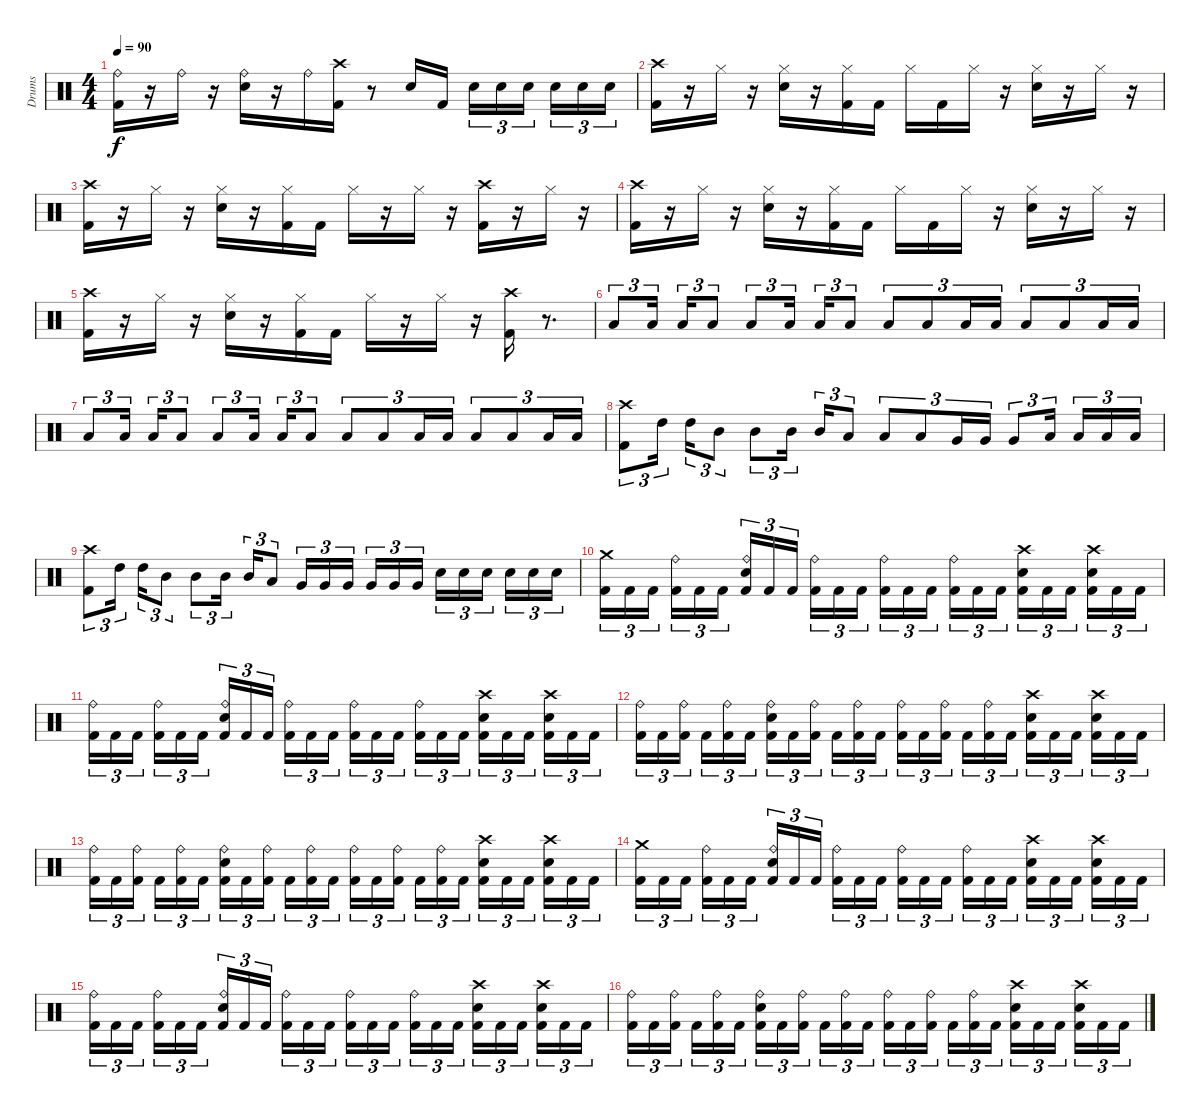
\track ("Drums" "Drums") {instrument percussion}
\staff {score}
\articulation defaults
\ts (4 4)
\tempo 90
\clef neutral
\ks c
("Kick (hit) 2" "Ride (bell)").16{dy f} r.16 "Ride (bell)".16 r.16 ("Electric Snare (hit)" "Ride (bell)").16 r.16 "Ride (bell)".16 ("Kick (hit) 2" "Crash high (hit)").16 r.8 "Electric Snare (hit)".16 "Kick (hit) 2".16 "Electric Snare (hit)".16{tu (3 2)} "Electric Snare (hit)".16{tu (3 2)} "Electric Snare (hit)".16{tu (3 2) beam splitsecondary} "Electric Snare (hit)".16{tu (3 2)} "Electric Snare (hit)".16{tu (3 2)} "Electric Snare (hit)".16{tu (3 2)} |
("Crash high (hit)" "Kick (hit) 2").16 r.16 "Hi-Hat (closed)".16 r.16 ("Hi-Hat (closed)" "Electric Snare (hit)").16 r.16 ("Hi-Hat (closed)" "Kick (hit) 2").16 "Kick (hit) 2".16 "Hi-Hat (closed)".16 "Kick (hit) 2".16 "Hi-Hat (closed)".16 r.16 ("Hi-Hat (closed)" "Electric Snare (hit)").16 r.16 "Hi-Hat (closed)".16 r.16 |
("Kick (hit) 2" "Crash high (hit)").16 r.16 "Hi-Hat (closed)".16 r.16 ("Hi-Hat (closed)" "Electric Snare (hit)").16 r.16 ("Hi-Hat (closed)" "Kick (hit) 2").16 "Kick (hit) 2".16 "Hi-Hat (closed)".16 r.16 "Hi-Hat (closed)".16 r.16 ("Crash high (hit)" "Kick (hit) 2").16 r.16 "Hi-Hat (closed)".16 r.16 |
("Kick (hit) 2" "Crash high (hit)").16 r.16 "Hi-Hat (closed)".16 r.16 ("Electric Snare (hit)" "Hi-Hat (closed)").16 r.16 ("Kick (hit) 2" "Hi-Hat (closed)").16 "Kick (hit) 2".16 "Hi-Hat (closed)".16 "Kick (hit) 2".16 "Hi-Hat (closed)".16 r.16 ("Electric Snare (hit)" "Hi-Hat (closed)").16 r.16 "Hi-Hat (closed)".16 r.16 |
("Crash high (hit)" "Kick (hit) 2").16 r.16 "Hi-Hat (closed)".16 r.16 ("Electric Snare (hit)" "Hi-Hat (closed)").16 r.16 ("Kick (hit) 2" "Hi-Hat (closed)").16 "Kick (hit) 2".16 "Hi-Hat (closed)".16 r.16 "Hi-Hat (closed)".16 r.16 ("Kick (hit) 2" "Crash high (hit)").16 r.8{d} |
"Low Floor Tom (hit)".8{tu (3 2)} "Low Floor Tom (hit)".16{tu (3 2) beam splitsecondary} "Low Floor Tom (hit)".16{tu (3 2)} "Low Floor Tom (hit)".8{tu (3 2)} "Low Floor Tom (hit)".8{tu (3 2)} "Low Floor Tom (hit)".16{tu (3 2) beam splitsecondary} "Low Floor Tom (hit)".16{tu (3 2)} "Low Floor Tom (hit)".8{tu (3 2)} "Low Floor Tom (hit)".8{tu (3 2)} "Low Floor Tom (hit)".8{tu (3 2)} "Low Floor Tom (hit)".16{tu (3 2)} "Low Floor Tom (hit)".16{tu (3 2)} "Low Floor Tom (hit)".8{tu (3 2)} "Low Floor Tom (hit)".8{tu (3 2)} "Low Floor Tom (hit)".16{tu (3 2)} "Low Floor Tom (hit)".16{tu (3 2)} |
"Low Floor Tom (hit)".8{tu (3 2)} "Low Floor Tom (hit)".16{tu (3 2) beam splitsecondary} "Low Floor Tom (hit)".16{tu (3 2)} "Low Floor Tom (hit)".8{tu (3 2)} "Low Floor Tom (hit)".8{tu (3 2)} "Low Floor Tom (hit)".16{tu (3 2) beam splitsecondary} "Low Floor Tom (hit)".16{tu (3 2)} "Low Floor Tom (hit)".8{tu (3 2)} "Low Floor Tom (hit)".8{tu (3 2)} "Low Floor Tom (hit)".8{tu (3 2)} "Low Floor Tom (hit)".16{tu (3 2)} "Low Floor Tom (hit)".16{tu (3 2)} "Low Floor Tom (hit)".8{tu (3 2)} "Low Floor Tom (hit)".8{tu (3 2)} "Low Floor Tom (hit)".16{tu (3 2)} "Low Floor Tom (hit)".16{tu (3 2)} |
("Crash high (hit)" "Kick (hit) 2").8{tu (3 2)} "High Tom (hit)".16{tu (3 2) beam splitsecondary} "High Tom (hit)".16{tu (3 2)} "Mid Tom (hit)".8{tu (3 2)} "Mid Tom (hit)".8{tu (3 2)} "Mid Tom (hit)".16{tu (3 2) beam splitsecondary} "Mid Tom (hit)".16{tu (3 2)} "Low Tom (hit)".8{tu (3 2)} "Low Tom (hit)".8{tu (3 2)} "Low Tom (hit)".8{tu (3 2)} "Very Low Tom (hit)".16{tu (3 2)} "Very Low Tom (hit)".16{tu (3 2)} "Very Low Tom (hit)".8{tu (3 2)} "Low Floor Tom (hit)".16{tu (3 2) beam splitsecondary} "Low Floor Tom (hit)".16{tu (3 2)} "Low Floor Tom (hit)".16{tu (3 2)} "Low Floor Tom (hit)".16{tu (3 2)} |
("Crash high (hit)" "Kick (hit) 2").8{tu (3 2)} "High Tom (hit)".16{tu (3 2) beam splitsecondary} "High Tom (hit)".16{tu (3 2)} "Mid Tom (hit)".8{tu (3 2)} "Mid Tom (hit)".8{tu (3 2)} "Mid Tom (hit)".16{tu (3 2) beam splitsecondary} "Mid Tom (hit)".16{tu (3 2)} "Low Tom (hit)".8{tu (3 2)} "Very Low Tom (hit)".16{tu (3 2)} "Very Low Tom (hit)".16{tu (3 2)} "Very Low Tom (hit)".16{tu (3 2) beam splitsecondary} "Very Low Tom (hit)".16{tu (3 2)} "Very Low Tom (hit)".16{tu (3 2)} "Very Low Tom (hit)".16{tu (3 2)} "Electric Snare (hit)".16{tu (3 2)} "Electric Snare (hit)".16{tu (3 2)} "Electric Snare (hit)".16{tu (3 2) beam splitsecondary} "Electric Snare (hit)".16{tu (3 2)} "Electric Snare (hit)".16{tu (3 2)} "Electric Snare (hit)".16{tu (3 2)} |
("Kick (hit) 2" "Crash medium (hit)").16{tu (3 2)} "Kick (hit) 2".16{tu (3 2)} "Kick (hit) 2".16{tu (3 2) beam splitsecondary} ("Kick (hit) 2" "Ride (bell)").16{tu (3 2)} "Kick (hit) 2".16{tu (3 2)} "Kick (hit) 2".16{tu (3 2)} ("Kick (hit) 2" "Electric Snare (hit)" "Ride (bell)").16{tu (3 2)} "Kick (hit) 2".16{tu (3 2)} "Kick (hit) 2".16{tu (3 2) beam splitsecondary} ("Kick (hit) 2" "Ride (bell)").16{tu (3 2)} "Kick (hit) 2".16{tu (3 2)} "Kick (hit) 2".16{tu (3 2)} ("Kick (hit) 2" "Ride (bell)").16{tu (3 2)} "Kick (hit) 2".16{tu (3 2)} "Kick (hit) 2".16{tu (3 2) beam splitsecondary} ("Kick (hit) 2" "Ride (bell)").16{tu (3 2)} "Kick (hit) 2".16{tu (3 2)} "Kick (hit) 2".16{tu (3 2)} ("Crash high (hit)" "Kick (hit) 2" "Electric Snare (hit)").16{tu (3 2)} "Kick (hit) 2".16{tu (3 2)} "Kick (hit) 2".16{tu (3 2) beam splitsecondary} ("Electric Snare (hit)" "Crash high (hit)" "Kick (hit) 2").16{tu (3 2)} "Kick (hit) 2".16{tu (3 2)} "Kick (hit) 2".16{tu (3 2)} |
("Kick (hit) 2" "Ride (bell)").16{tu (3 2)} "Kick (hit) 2".16{tu (3 2)} "Kick (hit) 2".16{tu (3 2) beam splitsecondary} ("Ride (bell)" "Kick (hit) 2").16{tu (3 2)} "Kick (hit) 2".16{tu (3 2)} "Kick (hit) 2".16{tu (3 2)} ("Ride (bell)" "Electric Snare (hit)" "Kick (hit) 2").16{tu (3 2)} "Kick (hit) 2".16{tu (3 2)} "Kick (hit) 2".16{tu (3 2) beam splitsecondary} ("Ride (bell)" "Kick (hit) 2").16{tu (3 2)} "Kick (hit) 2".16{tu (3 2)} "Kick (hit) 2".16{tu (3 2)} ("Ride (bell)" "Kick (hit) 2").16{tu (3 2)} "Kick (hit) 2".16{tu (3 2)} "Kick (hit) 2".16{tu (3 2) beam splitsecondary} ("Ride (bell)" "Kick (hit) 2").16{tu (3 2)} "Kick (hit) 2".16{tu (3 2)} "Kick (hit) 2".16{tu (3 2)} ("Electric Snare (hit)" "Kick (hit) 2" "Crash high (hit)").16{tu (3 2)} "Kick (hit) 2".16{tu (3 2)} "Kick (hit) 2".16{tu (3 2) beam splitsecondary} ("Kick (hit) 2" "Crash high (hit)" "Electric Snare (hit)").16{tu (3 2)} "Kick (hit) 2".16{tu (3 2)} "Kick (hit) 2".16{tu (3 2)} |
("Ride (bell)" "Kick (hit) 2").16{tu (3 2)} "Kick (hit) 2".16{tu (3 2)} ("Ride (bell)" "Kick (hit) 2").16{tu (3 2) beam splitsecondary} "Kick (hit) 2".16{tu (3 2)} ("Ride (bell)" "Kick (hit) 2").16{tu (3 2)} "Kick (hit) 2".16{tu (3 2)} ("Electric Snare (hit)" "Ride (bell)" "Kick (hit) 2").16{tu (3 2)} "Kick (hit) 2".16{tu (3 2)} ("Ride (bell)" "Kick (hit) 2").16{tu (3 2) beam splitsecondary} "Kick (hit) 2".16{tu (3 2)} ("Ride (bell)" "Kick (hit) 2").16{tu (3 2)} "Kick (hit) 2".16{tu (3 2)} ("Ride (bell)" "Kick (hit) 2").16{tu (3 2)} "Kick (hit) 2".16{tu (3 2)} ("Ride (bell)" "Kick (hit) 2").16{tu (3 2) beam splitsecondary} "Kick (hit) 2".16{tu (3 2)} ("Ride (bell)" "Kick (hit) 2").16{tu (3 2)} "Kick (hit) 2".16{tu (3 2)} ("Crash high (hit)" "Electric Snare (hit)" "Kick (hit) 2").16{tu (3 2)} "Kick (hit) 2".16{tu (3 2)} "Kick (hit) 2".16{tu (3 2) beam splitsecondary} ("Electric Snare (hit)" "Crash high (hit)" "Kick (hit) 2").16{tu (3 2)} "Kick (hit) 2".16{tu (3 2)} "Kick (hit) 2".16{tu (3 2)} |
("Kick (hit) 2" "Ride (bell)").16{tu (3 2)} "Kick (hit) 2".16{tu (3 2)} ("Kick (hit) 2" "Ride (bell)").16{tu (3 2) beam splitsecondary} "Kick (hit) 2".16{tu (3 2)} ("Kick (hit) 2" "Ride (bell)").16{tu (3 2)} "Kick (hit) 2".16{tu (3 2)} ("Kick (hit) 2" "Ride (bell)" "Electric Snare (hit)").16{tu (3 2)} "Kick (hit) 2".16{tu (3 2)} ("Kick (hit) 2" "Ride (bell)").16{tu (3 2) beam splitsecondary} "Kick (hit) 2".16{tu (3 2)} ("Kick (hit) 2" "Ride (bell)").16{tu (3 2)} "Kick (hit) 2".16{tu (3 2)} ("Kick (hit) 2" "Ride (bell)").16{tu (3 2)} "Kick (hit) 2".16{tu (3 2)} ("Kick (hit) 2" "Ride (bell)").16{tu (3 2) beam splitsecondary} "Kick (hit) 2".16{tu (3 2)} ("Kick (hit) 2" "Ride (bell)").16{tu (3 2)} "Kick (hit) 2".16{tu (3 2)} ("Kick (hit) 2" "Electric Snare (hit)" "Crash high (hit)").16{tu (3 2)} "Kick (hit) 2".16{tu (3 2)} "Kick (hit) 2".16{tu (3 2) beam splitsecondary} ("Kick (hit) 2" "Crash high (hit)" "Electric Snare (hit)").16{tu (3 2)} "Kick (hit) 2".16{tu (3 2)} "Kick (hit) 2".16{tu (3 2)} |
("Crash medium (hit)" "Kick (hit) 2").16{tu (3 2)} "Kick (hit) 2".16{tu (3 2)} "Kick (hit) 2".16{tu (3 2) beam splitsecondary} ("Ride (bell)" "Kick (hit) 2").16{tu (3 2)} "Kick (hit) 2".16{tu (3 2)} "Kick (hit) 2".16{tu (3 2)} ("Ride (bell)" "Electric Snare (hit)" "Kick (hit) 2").16{tu (3 2)} "Kick (hit) 2".16{tu (3 2)} "Kick (hit) 2".16{tu (3 2) beam splitsecondary} ("Ride (bell)" "Kick (hit) 2").16{tu (3 2)} "Kick (hit) 2".16{tu (3 2)} "Kick (hit) 2".16{tu (3 2)} ("Ride (bell)" "Kick (hit) 2").16{tu (3 2)} "Kick (hit) 2".16{tu (3 2)} "Kick (hit) 2".16{tu (3 2) beam splitsecondary} ("Ride (bell)" "Kick (hit) 2").16{tu (3 2)} "Kick (hit) 2".16{tu (3 2)} "Kick (hit) 2".16{tu (3 2)} ("Electric Snare (hit)" "Kick (hit) 2" "Crash high (hit)").16{tu (3 2)} "Kick (hit) 2".16{tu (3 2)} "Kick (hit) 2".16{tu (3 2) beam splitsecondary} ("Kick (hit) 2" "Crash high (hit)" "Electric Snare (hit)").16{tu (3 2)} "Kick (hit) 2".16{tu (3 2)} "Kick (hit) 2".16{tu (3 2)} |
("Ride (bell)" "Kick (hit) 2").16{tu (3 2)} "Kick (hit) 2".16{tu (3 2)} "Kick (hit) 2".16{tu (3 2) beam splitsecondary} ("Kick (hit) 2" "Ride (bell)").16{tu (3 2)} "Kick (hit) 2".16{tu (3 2)} "Kick (hit) 2".16{tu (3 2)} ("Kick (hit) 2" "Electric Snare (hit)" "Ride (bell)").16{tu (3 2)} "Kick (hit) 2".16{tu (3 2)} "Kick (hit) 2".16{tu (3 2) beam splitsecondary} ("Kick (hit) 2" "Ride (bell)").16{tu (3 2)} "Kick (hit) 2".16{tu (3 2)} "Kick (hit) 2".16{tu (3 2)} ("Kick (hit) 2" "Ride (bell)").16{tu (3 2)} "Kick (hit) 2".16{tu (3 2)} "Kick (hit) 2".16{tu (3 2) beam splitsecondary} ("Kick (hit) 2" "Ride (bell)").16{tu (3 2)} "Kick (hit) 2".16{tu (3 2)} "Kick (hit) 2".16{tu (3 2)} ("Crash high (hit)" "Kick (hit) 2" "Electric Snare (hit)").16{tu (3 2)} "Kick (hit) 2".16{tu (3 2)} "Kick (hit) 2".16{tu (3 2) beam splitsecondary} ("Electric Snare (hit)" "Crash high (hit)" "Kick (hit) 2").16{tu (3 2)} "Kick (hit) 2".16{tu (3 2)} "Kick (hit) 2".16{tu (3 2)} |
("Kick (hit) 2" "Ride (bell)").16{tu (3 2)} "Kick (hit) 2".16{tu (3 2)} ("Kick (hit) 2" "Ride (bell)").16{tu (3 2) beam splitsecondary} "Kick (hit) 2".16{tu (3 2)} ("Kick (hit) 2" "Ride (bell)").16{tu (3 2)} "Kick (hit) 2".16{tu (3 2)} ("Kick (hit) 2" "Ride (bell)" "Electric Snare (hit)").16{tu (3 2)} "Kick (hit) 2".16{tu (3 2)} ("Kick (hit) 2" "Ride (bell)").16{tu (3 2) beam splitsecondary} "Kick (hit) 2".16{tu (3 2)} ("Kick (hit) 2" "Ride (bell)").16{tu (3 2)} "Kick (hit) 2".16{tu (3 2)} ("Kick (hit) 2" "Ride (bell)").16{tu (3 2)} "Kick (hit) 2".16{tu (3 2)} ("Kick (hit) 2" "Ride (bell)").16{tu (3 2) beam splitsecondary} "Kick (hit) 2".16{tu (3 2)} ("Kick (hit) 2" "Ride (bell)").16{tu (3 2)} "Kick (hit) 2".16{tu (3 2)} ("Kick (hit) 2" "Electric Snare (hit)" "Crash high (hit)").16{tu (3 2)} "Kick (hit) 2".16{tu (3 2)} "Kick (hit) 2".16{tu (3 2) beam splitsecondary} ("Kick (hit) 2" "Crash high (hit)" "Electric Snare (hit)").16{tu (3 2)} "Kick (hit) 2".16{tu (3 2)} "Kick (hit) 2".16{tu (3 2)}
